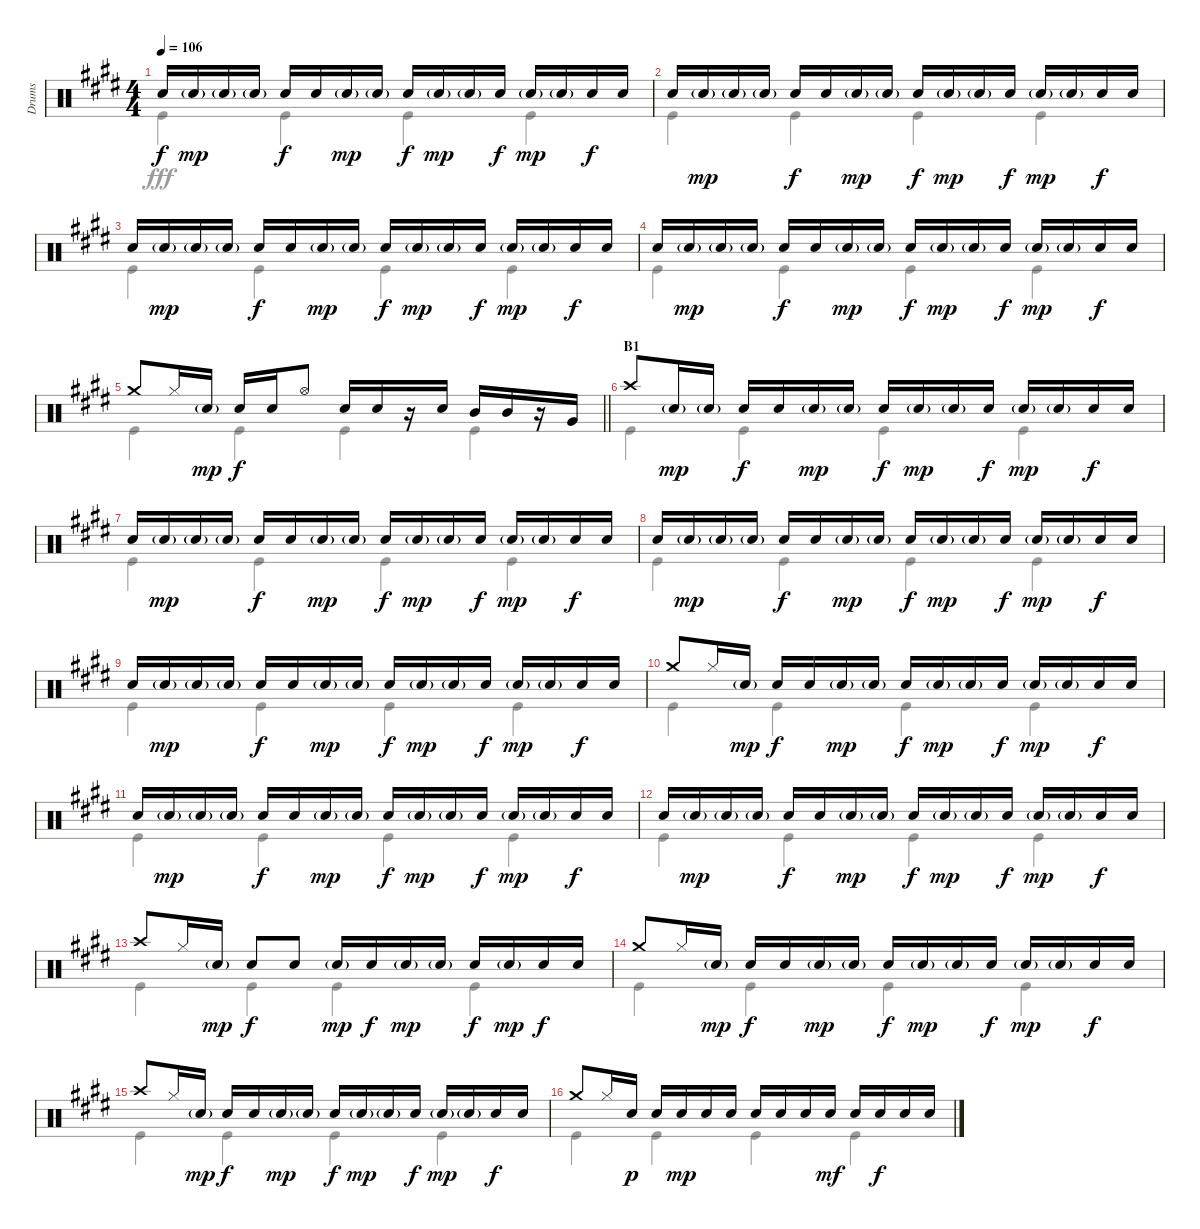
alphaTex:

\track ("Drums" "Drums") {instrument percussion}
\staff {score}
\articulation defaults
\voice
\ts (4 4)
\tempo 106
\clef neutral
\ks e "Snare (hit) 2".16{dy f} "Snare (hit) 2"{g}.16{dy mp} "Snare (hit) 2"{g}.16 "Snare (hit) 2"{g}.16 "Snare (hit) 2".16{dy f} "Snare (hit) 2".16 "Snare (hit) 2"{g}.16{dy mp} "Snare (hit) 2"{g}.16 "Snare (hit) 2".16{dy f} "Snare (hit) 2"{g}.16{dy mp} "Snare (hit) 2"{g}.16 "Snare (hit) 2".16{dy f} "Snare (hit) 2"{g}.16{dy mp} "Snare (hit) 2"{g}.16 "Snare (hit) 2".16{dy f} "Snare (hit) 2".16
|
"Snare (hit) 2".16 "Snare (hit) 2"{g}.16{dy mp} "Snare (hit) 2"{g}.16 "Snare (hit) 2"{g}.16 "Snare (hit) 2".16{dy f} "Snare (hit) 2".16 "Snare (hit) 2"{g}.16{dy mp} "Snare (hit) 2"{g}.16 "Snare (hit) 2".16{dy f} "Snare (hit) 2"{g}.16{dy mp} "Snare (hit) 2"{g}.16 "Snare (hit) 2".16{dy f} "Snare (hit) 2"{g}.16{dy mp} "Snare (hit) 2"{g}.16 "Snare (hit) 2".16{dy f} "Snare (hit) 2".16 |
"Snare (hit) 2".16 "Snare (hit) 2"{g}.16{dy mp} "Snare (hit) 2"{g}.16 "Snare (hit) 2"{g}.16 "Snare (hit) 2".16{dy f} "Snare (hit) 2".16 "Snare (hit) 2"{g}.16{dy mp} "Snare (hit) 2"{g}.16 "Snare (hit) 2".16{dy f} "Snare (hit) 2"{g}.16{dy mp} "Snare (hit) 2"{g}.16 "Snare (hit) 2".16{dy f} "Snare (hit) 2"{g}.16{dy mp} "Snare (hit) 2"{g}.16 "Snare (hit) 2".16{dy f} "Snare (hit) 2".16 |
"Snare (hit) 2".16 "Snare (hit) 2"{g}.16{dy mp} "Snare (hit) 2"{g}.16 "Snare (hit) 2"{g}.16 "Snare (hit) 2".16{dy f} "Snare (hit) 2".16 "Snare (hit) 2"{g}.16{dy mp} "Snare (hit) 2"{g}.16 "Snare (hit) 2".16{dy f} "Snare (hit) 2"{g}.16{dy mp} "Snare (hit) 2"{g}.16 "Snare (hit) 2".16{dy f} "Snare (hit) 2"{g}.16{dy mp} "Snare (hit) 2"{g}.16 "Snare (hit) 2".16{dy f} "Snare (hit) 2".16 |
\barLineRight lightlight "Crash medium (hit)".8 "Hi-Hat (closed)".16 "Snare (hit) 2"{g}.16{dy mp} "Snare (hit) 2".16{dy f} "Snare (hit) 2".16 "Hi-Hat (open)".8 "Snare (hit) 2".16 "Snare (hit) 2".16
r.16 "Snare (hit) 2".16 "Mid Tom (hit)".16 "Mid Tom (hit)".16 r.16 "Very Low Tom (hit)".16 |
\section ("" "B1")
"Crash high (hit)".8 "Snare (hit) 2"{g}.16{dy mp} "Snare (hit) 2"{g}.16 "Snare (hit) 2".16{dy f} "Snare (hit) 2".16 "Snare (hit) 2"{g}.16{dy mp} "Snare (hit) 2"{g}.16 "Snare (hit) 2".16{dy f} "Snare (hit) 2"{g}.16{dy mp} "Snare (hit) 2"{g}.16 "Snare (hit) 2".16{dy f} "Snare (hit) 2"{g}.16{dy mp} "Snare (hit) 2"{g}.16 "Snare (hit) 2".16{dy f} "Snare (hit) 2".16 |
"Snare (hit) 2".16 "Snare (hit) 2"{g}.16{dy mp} "Snare (hit) 2"{g}.16 "Snare (hit) 2"{g}.16 "Snare (hit) 2".16{dy f} "Snare (hit) 2".16 "Snare (hit) 2"{g}.16{dy mp} "Snare (hit) 2"{g}.16 "Snare (hit) 2".16{dy f} "Snare (hit) 2"{g}.16{dy mp} "Snare (hit) 2"{g}.16 "Snare (hit) 2".16{dy f} "Snare (hit) 2"{g}.16{dy mp} "Snare (hit) 2"{g}.16 "Snare (hit) 2".16{dy f} "Snare (hit) 2".16 |
"Snare (hit) 2".16 "Snare (hit) 2"{g}.16{dy mp} "Snare (hit) 2"{g}.16 "Snare (hit) 2"{g}.16 "Snare (hit) 2".16{dy f} "Snare (hit) 2".16 "Snare (hit) 2"{g}.16{dy mp} "Snare (hit) 2"{g}.16 "Snare (hit) 2".16{dy f} "Snare (hit) 2"{g}.16{dy mp} "Snare (hit) 2"{g}.16 "Snare (hit) 2".16{dy f} "Snare (hit) 2"{g}.16{dy mp} "Snare (hit) 2"{g}.16 "Snare (hit) 2".16{dy f} "Snare (hit) 2".16 |
"Snare (hit) 2".16 "Snare (hit) 2"{g}.16{dy mp} "Snare (hit) 2"{g}.16 "Snare (hit) 2"{g}.16 "Snare (hit) 2".16{dy f} "Snare (hit) 2".16 "Snare (hit) 2"{g}.16{dy mp} "Snare (hit) 2"{g}.16 "Snare (hit) 2".16{dy f} "Snare (hit) 2"{g}.16{dy mp} "Snare (hit) 2"{g}.16 "Snare (hit) 2".16{dy f} "Snare (hit) 2"{g}.16{dy mp} "Snare (hit) 2"{g}.16 "Snare (hit) 2".16{dy f} "Snare (hit) 2".16 |
"Crash medium (hit)".8 "Hi-Hat (closed)".16 "Snare (hit) 2"{g}.16{dy mp} "Snare (hit) 2".16{dy f} "Snare (hit) 2".16 "Snare (hit) 2"{g}.16{dy mp} "Snare (hit) 2"{g}.16 "Snare (hit) 2".16{dy f} "Snare (hit) 2"{g}.16{dy mp} "Snare (hit) 2"{g}.16 "Snare (hit) 2".16{dy f} "Snare (hit) 2"{g}.16{dy mp} "Snare (hit) 2"{g}.16 "Snare (hit) 2".16{dy f} "Snare (hit) 2".16 |
"Snare (hit) 2".16 "Snare (hit) 2"{g}.16{dy mp} "Snare (hit) 2"{g}.16 "Snare (hit) 2"{g}.16 "Snare (hit) 2".16{dy f} "Snare (hit) 2".16 "Snare (hit) 2"{g}.16{dy mp} "Snare (hit) 2"{g}.16 "Snare (hit) 2".16{dy f} "Snare (hit) 2"{g}.16{dy mp} "Snare (hit) 2"{g}.16 "Snare (hit) 2".16{dy f} "Snare (hit) 2"{g}.16{dy mp} "Snare (hit) 2"{g}.16 "Snare (hit) 2".16{dy f} "Snare (hit) 2".16 |
"Snare (hit) 2".16 "Snare (hit) 2"{g}.16{dy mp} "Snare (hit) 2"{g}.16 "Snare (hit) 2"{g}.16 "Snare (hit) 2".16{dy f} "Snare (hit) 2".16 "Snare (hit) 2"{g}.16{dy mp} "Snare (hit) 2"{g}.16 "Snare (hit) 2".16{dy f} "Snare (hit) 2"{g}.16{dy mp} "Snare (hit) 2"{g}.16 "Snare (hit) 2".16{dy f} "Snare (hit) 2"{g}.16{dy mp} "Snare (hit) 2"{g}.16 "Snare (hit) 2".16{dy f} "Snare (hit) 2".16 |
"Crash high (hit)".8 "Hi-Hat (closed)".16 "Snare (hit) 2"{g}.16{dy mp} "Snare (hit) 2".8{dy f} "Snare (hit) 2".8 "Snare (hit) 2"{g}.16{dy mp} "Snare (hit) 2".16{dy f} "Snare (hit) 2"{g}.16{dy mp} "Snare (hit) 2"{g}.16 "Snare (hit) 2".16{dy f} "Snare (hit) 2"{g}.16{dy mp} "Snare (hit) 2".16{dy f} "Snare (hit) 2".16 |
"Crash medium (hit)".8 "Hi-Hat (closed)".16 "Snare (hit) 2"{g}.16{dy mp} "Snare (hit) 2".16{dy f} "Snare (hit) 2".16 "Snare (hit) 2"{g}.16{dy mp} "Snare (hit) 2"{g}.16 "Snare (hit) 2".16{dy f} "Snare (hit) 2"{g}.16{dy mp} "Snare (hit) 2"{g}.16 "Snare (hit) 2".16{dy f} "Snare (hit) 2"{g}.16{dy mp} "Snare (hit) 2"{g}.16 "Snare (hit) 2".16{dy f} "Snare (hit) 2".16 |
"Crash high (hit)".8 "Hi-Hat (closed)".16 "Snare (hit) 2"{g}.16{dy mp} "Snare (hit) 2".16{dy f} "Snare (hit) 2".16 "Snare (hit) 2"{g}.16{dy mp} "Snare (hit) 2"{g}.16 "Snare (hit) 2".16{dy f} "Snare (hit) 2"{g}.16{dy mp} "Snare (hit) 2"{g}.16 "Snare (hit) 2".16{dy f} "Snare (hit) 2"{g}.16{dy mp} "Snare (hit) 2"{g}.16 "Snare (hit) 2".16{dy f} "Snare (hit) 2".16 |
"Crash medium (hit)".8 "Hi-Hat (closed)".16 "Snare (hit) 2".16{dy p} "Snare (hit) 2".16 "Snare (hit) 2".16{dy mp} "Snare (hit) 2".16 "Snare (hit) 2".16 "Snare (hit) 2".16 "Snare (hit) 2".16 "Snare (hit) 2".16 "Snare (hit) 2".16{dy mf} "Snare (hit) 2".16 "Snare (hit) 2".16{dy f} "Snare (hit) 2".16 "Snare (hit) 2".16
\voice
\clef neutral
\ottava regular
\simile none
\ks e "Kick (hit)".4{dy fff} "Kick (hit)".4 "Kick (hit)".4 "Kick (hit)".4
|
"Kick (hit)".4 "Kick (hit)".4 "Kick (hit)".4 "Kick (hit)".4 |
"Kick (hit)".4 "Kick (hit)".4 "Kick (hit)".4 "Kick (hit)".4 |
"Kick (hit)".4 "Kick (hit)".4 "Kick (hit)".4 "Kick (hit)".4 |
\barLineRight lightlight "Kick (hit)".4 "Kick (hit)".4 "Kick (hit)".4 "Kick (hit)".4
|
"Kick (hit)".4 "Kick (hit)".4 "Kick (hit)".4 "Kick (hit)".4 |
"Kick (hit)".4 "Kick (hit)".4 "Kick (hit)".4 "Kick (hit)".4 |
"Kick (hit)".4 "Kick (hit)".4 "Kick (hit)".4 "Kick (hit)".4 |
"Kick (hit)".4 "Kick (hit)".4 "Kick (hit)".4 "Kick (hit)".4 |
"Kick (hit)".4 "Kick (hit)".4 "Kick (hit)".4 "Kick (hit)".4 |
"Kick (hit)".4 "Kick (hit)".4 "Kick (hit)".4 "Kick (hit)".4 |
"Kick (hit)".4 "Kick (hit)".4 "Kick (hit)".4 "Kick (hit)".4 |
"Kick (hit)".4 "Kick (hit)".4 "Kick (hit)".4 "Kick (hit)".4 |
"Kick (hit)".4 "Kick (hit)".4 "Kick (hit)".4 "Kick (hit)".4 |
"Kick (hit)".4 "Kick (hit)".4 "Kick (hit)".4 "Kick (hit)".4 |
"Kick (hit)".4 "Kick (hit)".4 "Kick (hit)".4 "Kick (hit)".4
